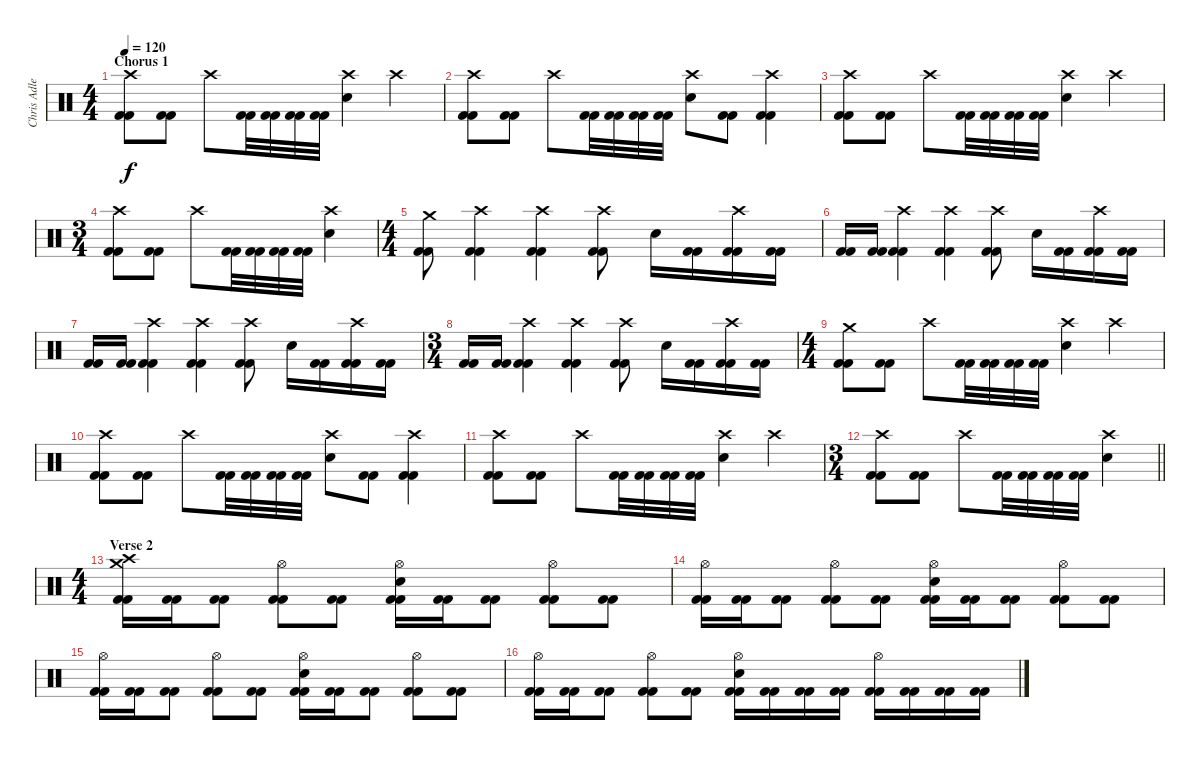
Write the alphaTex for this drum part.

\track ("Chris Adler" "Chris Adle") {instrument percussion}
\staff {score}
\articulation defaults
\ts (4 4)
\section ("" "Chorus 1")
\tempo 120
\clef neutral
\ks c
("Crash high (hit)" "Kick (hit) 2" "Kick (hit) 2").8{dy f} ("Kick (hit) 2" "Kick (hit) 2").8 "Crash high (hit)".8 ("Kick (hit) 2" "Kick (hit) 2").32 ("Kick (hit) 2" "Kick (hit) 2").32 ("Kick (hit) 2" "Kick (hit) 2").32 ("Kick (hit) 2" "Kick (hit) 2").32 ("Crash high (hit)" "Electric Snare (hit)").4 "Crash high (hit)".4 |
("Crash high (hit)" "Kick (hit) 2" "Kick (hit) 2").8 ("Kick (hit) 2" "Kick (hit) 2").8 "Crash high (hit)".8 ("Kick (hit) 2" "Kick (hit) 2").32 ("Kick (hit) 2" "Kick (hit) 2").32 ("Kick (hit) 2" "Kick (hit) 2").32 ("Kick (hit) 2" "Kick (hit) 2").32 ("Crash high (hit)" "Electric Snare (hit)").8 ("Kick (hit) 2" "Kick (hit) 2").8 ("Crash high (hit)" "Kick (hit) 2" "Kick (hit) 2").4 |
("Crash high (hit)" "Kick (hit) 2" "Kick (hit) 2").8 ("Kick (hit) 2" "Kick (hit) 2").8 "Crash high (hit)".8 ("Kick (hit) 2" "Kick (hit) 2").32 ("Kick (hit) 2" "Kick (hit) 2").32 ("Kick (hit) 2" "Kick (hit) 2").32 ("Kick (hit) 2" "Kick (hit) 2").32 ("Crash high (hit)" "Electric Snare (hit)").4 "Crash high (hit)".4 |
\ts (3 4)
("Crash high (hit)" "Kick (hit) 2" "Kick (hit) 2").8 ("Kick (hit) 2" "Kick (hit) 2").8 "Crash high (hit)".8 ("Kick (hit) 2" "Kick (hit) 2").32 ("Kick (hit) 2" "Kick (hit) 2").32 ("Kick (hit) 2" "Kick (hit) 2").32 ("Kick (hit) 2" "Kick (hit) 2").32 ("Crash high (hit)" "Electric Snare (hit)").4 |
\ts (4 4)
("Crash medium (hit)" "Kick (hit) 2" "Kick (hit) 2").8 ("Crash high (hit)" "Kick (hit) 2" "Kick (hit) 2").4 ("Crash high (hit)" "Kick (hit) 2" "Kick (hit) 2").4 ("Crash high (hit)" "Kick (hit) 2" "Kick (hit) 2").8 "Electric Snare (hit)".16 ("Kick (hit) 2" "Kick (hit) 2").16 ("Crash high (hit)" "Kick (hit) 2" "Kick (hit) 2").16 ("Kick (hit) 2" "Kick (hit) 2").16 |
("Kick (hit) 2" "Kick (hit) 2").16 ("Kick (hit) 2" "Kick (hit) 2").16 ("Crash high (hit)" "Kick (hit) 2" "Kick (hit) 2").4 ("Crash high (hit)" "Kick (hit) 2" "Kick (hit) 2").4 ("Crash high (hit)" "Kick (hit) 2" "Kick (hit) 2").8 "Electric Snare (hit)".16 ("Kick (hit) 2" "Kick (hit) 2").16 ("Crash high (hit)" "Kick (hit) 2" "Kick (hit) 2").16 ("Kick (hit) 2" "Kick (hit) 2").16 |
("Kick (hit) 2" "Kick (hit) 2").16 ("Kick (hit) 2" "Kick (hit) 2").16 ("Crash high (hit)" "Kick (hit) 2" "Kick (hit) 2").4 ("Crash high (hit)" "Kick (hit) 2" "Kick (hit) 2").4 ("Crash high (hit)" "Kick (hit) 2" "Kick (hit) 2").8 "Electric Snare (hit)".16 ("Kick (hit) 2" "Kick (hit) 2").16 ("Crash high (hit)" "Kick (hit) 2" "Kick (hit) 2").16 ("Kick (hit) 2" "Kick (hit) 2").16 |
\ts (3 4)
("Kick (hit) 2" "Kick (hit) 2").16 ("Kick (hit) 2" "Kick (hit) 2").16 ("Crash high (hit)" "Kick (hit) 2" "Kick (hit) 2").4 ("Crash high (hit)" "Kick (hit) 2" "Kick (hit) 2").4 ("Crash high (hit)" "Kick (hit) 2" "Kick (hit) 2").8 "Electric Snare (hit)".16 ("Kick (hit) 2" "Kick (hit) 2").16 ("Crash high (hit)" "Kick (hit) 2" "Kick (hit) 2").16 ("Kick (hit) 2" "Kick (hit) 2").16 |
\ts (4 4)
("Crash medium (hit)" "Kick (hit) 2" "Kick (hit) 2").8 ("Kick (hit) 2" "Kick (hit) 2").8 "Crash high (hit)".8 ("Kick (hit) 2" "Kick (hit) 2").32 ("Kick (hit) 2" "Kick (hit) 2").32 ("Kick (hit) 2" "Kick (hit) 2").32 ("Kick (hit) 2" "Kick (hit) 2").32 ("Crash high (hit)" "Electric Snare (hit)").4 "Crash high (hit)".4 |
("Crash high (hit)" "Kick (hit) 2" "Kick (hit) 2").8 ("Kick (hit) 2" "Kick (hit) 2").8 "Crash high (hit)".8 ("Kick (hit) 2" "Kick (hit) 2").32 ("Kick (hit) 2" "Kick (hit) 2").32 ("Kick (hit) 2" "Kick (hit) 2").32 ("Kick (hit) 2" "Kick (hit) 2").32 ("Crash high (hit)" "Electric Snare (hit)").8 ("Kick (hit) 2" "Kick (hit) 2").8 ("Crash high (hit)" "Kick (hit) 2" "Kick (hit) 2").4 |
("Crash high (hit)" "Kick (hit) 2" "Kick (hit) 2").8 ("Kick (hit) 2" "Kick (hit) 2").8 "Crash high (hit)".8 ("Kick (hit) 2" "Kick (hit) 2").32 ("Kick (hit) 2" "Kick (hit) 2").32 ("Kick (hit) 2" "Kick (hit) 2").32 ("Kick (hit) 2" "Kick (hit) 2").32 ("Crash high (hit)" "Electric Snare (hit)").4 "Crash high (hit)".4 |
\ts (3 4)
\barLineRight lightlight
("Crash high (hit)" "Kick (hit) 2" "Kick (hit) 2").8 ("Kick (hit) 2" "Kick (hit) 2").8 "Crash high (hit)".8 ("Kick (hit) 2" "Kick (hit) 2").32 ("Kick (hit) 2" "Kick (hit) 2").32 ("Kick (hit) 2" "Kick (hit) 2").32 ("Kick (hit) 2" "Kick (hit) 2").32 ("Crash high (hit)" "Electric Snare (hit)").4 |
\ts (4 4)
\section ("" "Verse 2")
("Crash medium (hit)" "Crash high (hit)" "Kick (hit) 2" "Kick (hit) 2").16 ("Kick (hit) 2" "Kick (hit) 2").16 ("Kick (hit) 2" "Kick (hit) 2").8 ("Hi-Hat (open)" "Kick (hit) 2" "Kick (hit) 2").8 ("Kick (hit) 2" "Kick (hit) 2").8 ("Hi-Hat (open)" "Electric Snare (hit)" "Kick (hit) 2" "Kick (hit) 2").16 ("Kick (hit) 2" "Kick (hit) 2").16 ("Kick (hit) 2" "Kick (hit) 2").8 ("Hi-Hat (open)" "Kick (hit) 2" "Kick (hit) 2").8 ("Kick (hit) 2" "Kick (hit) 2").8 |
("Hi-Hat (open)" "Kick (hit) 2" "Kick (hit) 2").16 ("Kick (hit) 2" "Kick (hit) 2").16 ("Kick (hit) 2" "Kick (hit) 2").8 ("Hi-Hat (open)" "Kick (hit) 2" "Kick (hit) 2").8 ("Kick (hit) 2" "Kick (hit) 2").8 ("Hi-Hat (open)" "Electric Snare (hit)" "Kick (hit) 2" "Kick (hit) 2").16 ("Kick (hit) 2" "Kick (hit) 2").16 ("Kick (hit) 2" "Kick (hit) 2").8 ("Hi-Hat (open)" "Kick (hit) 2" "Kick (hit) 2").8 ("Kick (hit) 2" "Kick (hit) 2").8 |
("Hi-Hat (open)" "Kick (hit) 2" "Kick (hit) 2").16 ("Kick (hit) 2" "Kick (hit) 2").16 ("Kick (hit) 2" "Kick (hit) 2").8 ("Hi-Hat (open)" "Kick (hit) 2" "Kick (hit) 2").8 ("Kick (hit) 2" "Kick (hit) 2").8 ("Hi-Hat (open)" "Electric Snare (hit)" "Kick (hit) 2" "Kick (hit) 2").16 ("Kick (hit) 2" "Kick (hit) 2").16 ("Kick (hit) 2" "Kick (hit) 2").8 ("Hi-Hat (open)" "Kick (hit) 2" "Kick (hit) 2").8 ("Kick (hit) 2" "Kick (hit) 2").8 |
("Hi-Hat (open)" "Kick (hit) 2" "Kick (hit) 2").16 ("Kick (hit) 2" "Kick (hit) 2").16 ("Kick (hit) 2" "Kick (hit) 2").8 ("Hi-Hat (open)" "Kick (hit) 2" "Kick (hit) 2").8 ("Kick (hit) 2" "Kick (hit) 2").8 ("Hi-Hat (open)" "Electric Snare (hit)" "Kick (hit) 2" "Kick (hit) 2").16 ("Kick (hit) 2" "Kick (hit) 2").16 ("Kick (hit) 2" "Kick (hit) 2").16 ("Kick (hit) 2" "Kick (hit) 2").16 ("Hi-Hat (open)" "Kick (hit) 2" "Kick (hit) 2").16 ("Kick (hit) 2" "Kick (hit) 2").16 ("Kick (hit) 2" "Kick (hit) 2").16 ("Kick (hit) 2" "Kick (hit) 2").16
